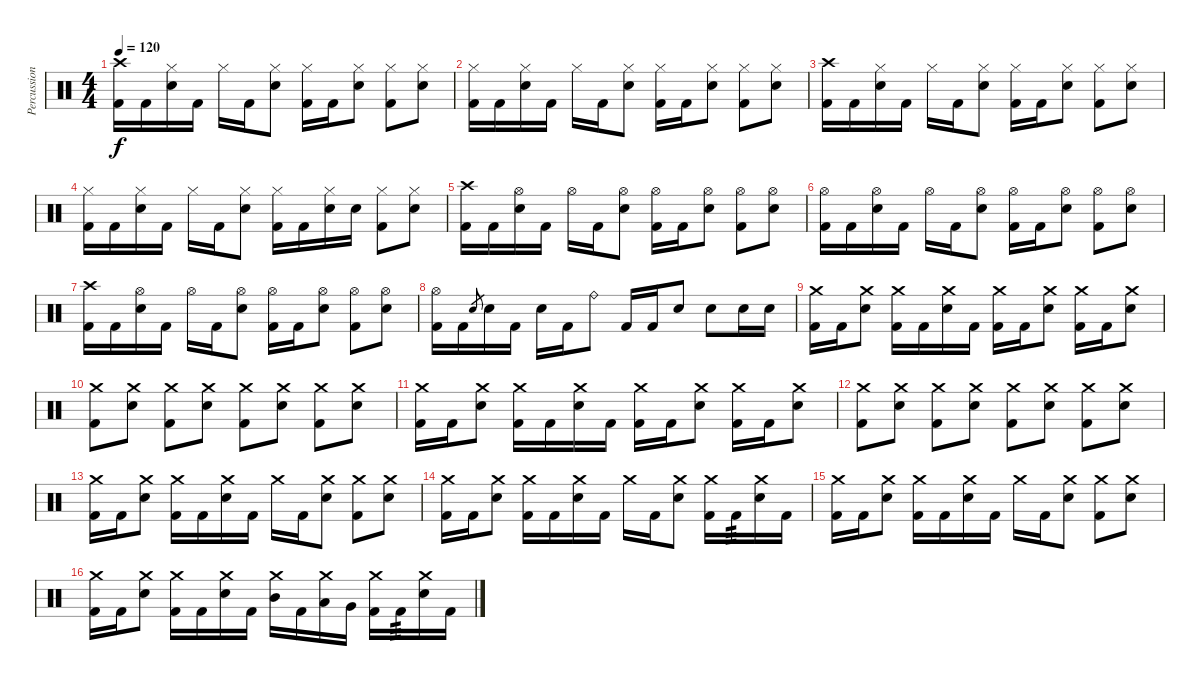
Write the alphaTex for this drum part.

\track ("Percussion" "Percussion") {instrument percussion}
\staff {score}
\articulation defaults
\ts (4 4)
\tempo 120
\clef neutral
\ks c
("Crash high (hit)" "Kick (hit) 2").16{dy f} "Kick (hit) 2".16 ("Hi-Hat (closed)" "Electric Snare (hit)").16 "Kick (hit) 2".16 "Hi-Hat (closed)".16 "Kick (hit) 2".16 ("Hi-Hat (closed)" "Electric Snare (hit)").8 ("Hi-Hat (closed)" "Kick (hit) 2").16 "Kick (hit) 2".16 ("Hi-Hat (closed)" "Electric Snare (hit)").8 ("Hi-Hat (closed)" "Kick (hit) 2").8 ("Hi-Hat (closed)" "Electric Snare (hit)").8 |
("Hi-Hat (closed)" "Kick (hit) 2").16 "Kick (hit) 2".16 ("Hi-Hat (closed)" "Electric Snare (hit)").16 "Kick (hit) 2".16 "Hi-Hat (closed)".16 "Kick (hit) 2".16 ("Hi-Hat (closed)" "Electric Snare (hit)").8 ("Hi-Hat (closed)" "Kick (hit) 2").16 "Kick (hit) 2".16 ("Hi-Hat (closed)" "Electric Snare (hit)").8 ("Hi-Hat (closed)" "Kick (hit) 2").8 ("Hi-Hat (closed)" "Electric Snare (hit)").8 |
("Crash high (hit)" "Kick (hit) 2").16 "Kick (hit) 2".16 ("Hi-Hat (closed)" "Electric Snare (hit)").16 "Kick (hit) 2".16 "Hi-Hat (closed)".16 "Kick (hit) 2".16 ("Hi-Hat (closed)" "Electric Snare (hit)").8 ("Hi-Hat (closed)" "Kick (hit) 2").16 "Kick (hit) 2".16 ("Hi-Hat (closed)" "Electric Snare (hit)").8 ("Hi-Hat (closed)" "Kick (hit) 2").8 ("Hi-Hat (closed)" "Electric Snare (hit)").8 |
("Hi-Hat (closed)" "Kick (hit) 2").16 "Kick (hit) 2".16 ("Hi-Hat (closed)" "Electric Snare (hit)").16 "Kick (hit) 2".16 "Hi-Hat (closed)".16 "Kick (hit) 2".16 ("Hi-Hat (closed)" "Electric Snare (hit)").8 ("Hi-Hat (closed)" "Kick (hit) 2").16 "Kick (hit) 2".16 ("Hi-Hat (closed)" "Electric Snare (hit)").16 "Electric Snare (hit)".16 ("Hi-Hat (closed)" "Kick (hit) 2").8 ("Hi-Hat (closed)" "Electric Snare (hit)").8 |
("Crash high (hit)" "Kick (hit) 2").16 "Kick (hit) 2".16 ("Hi-Hat (open)" "Electric Snare (hit)").16 "Kick (hit) 2".16 "Hi-Hat (open)".16 "Kick (hit) 2".16 ("Hi-Hat (open)" "Electric Snare (hit)").8 ("Hi-Hat (open)" "Kick (hit) 2").16 "Kick (hit) 2".16 ("Hi-Hat (open)" "Electric Snare (hit)").8 ("Hi-Hat (open)" "Kick (hit) 2").8 ("Hi-Hat (open)" "Electric Snare (hit)").8 |
("Hi-Hat (open)" "Kick (hit) 2").16 "Kick (hit) 2".16 ("Hi-Hat (open)" "Electric Snare (hit)").16 "Kick (hit) 2".16 "Hi-Hat (open)".16 "Kick (hit) 2".16 ("Hi-Hat (open)" "Electric Snare (hit)").8 ("Hi-Hat (open)" "Kick (hit) 2").16 "Kick (hit) 2".16 ("Hi-Hat (open)" "Electric Snare (hit)").8 ("Hi-Hat (open)" "Kick (hit) 2").8 ("Hi-Hat (open)" "Electric Snare (hit)").8 |
("Crash high (hit)" "Kick (hit) 2").16 "Kick (hit) 2".16 ("Hi-Hat (open)" "Electric Snare (hit)").16 "Kick (hit) 2".16 "Hi-Hat (open)".16 "Kick (hit) 2".16 ("Hi-Hat (open)" "Electric Snare (hit)").8 ("Hi-Hat (open)" "Kick (hit) 2").16 "Kick (hit) 2".16 ("Hi-Hat (open)" "Electric Snare (hit)").8 ("Hi-Hat (open)" "Kick (hit) 2").8 ("Hi-Hat (open)" "Electric Snare (hit)").8 |
("Hi-Hat (open)" "Kick (hit) 2").16 "Kick (hit) 2".16 "Electric Snare (hit)".8{gr} "Electric Snare (hit)".16 "Kick (hit) 2".16 "Electric Snare (hit)".16 "Kick (hit) 2".16 "Ride (bell)".8 "Kick (hit) 2".16 "Kick (hit) 2".16 "Electric Snare (hit)".8 "Electric Snare (hit)".8 "Electric Snare (hit)".16 "Electric Snare (hit)".16 |
("Crash medium (hit)" "Kick (hit) 2").16 "Kick (hit) 2".16 ("Crash medium (hit)" "Electric Snare (hit)").8 ("Crash medium (hit)" "Kick (hit) 2").16 "Kick (hit) 2".16 ("Crash medium (hit)" "Electric Snare (hit)").16 "Kick (hit) 2".16 ("Crash medium (hit)" "Kick (hit) 2").16 "Kick (hit) 2".16 ("Crash medium (hit)" "Electric Snare (hit)").8 ("Crash medium (hit)" "Kick (hit) 2").16 "Kick (hit) 2".16 ("Crash medium (hit)" "Electric Snare (hit)").8 |
("Crash medium (hit)" "Kick (hit) 2").8 ("Crash medium (hit)" "Electric Snare (hit)").8 ("Crash medium (hit)" "Kick (hit) 2").8 ("Crash medium (hit)" "Electric Snare (hit)").8 ("Crash medium (hit)" "Kick (hit) 2").8 ("Crash medium (hit)" "Electric Snare (hit)").8 ("Crash medium (hit)" "Kick (hit) 2").8 ("Crash medium (hit)" "Electric Snare (hit)").8 |
("Crash medium (hit)" "Kick (hit) 2").16 "Kick (hit) 2".16 ("Crash medium (hit)" "Electric Snare (hit)").8 ("Crash medium (hit)" "Kick (hit) 2").16 "Kick (hit) 2".16 ("Crash medium (hit)" "Electric Snare (hit)").16 "Kick (hit) 2".16 ("Crash medium (hit)" "Kick (hit) 2").16 "Kick (hit) 2".16 ("Crash medium (hit)" "Electric Snare (hit)").8 ("Crash medium (hit)" "Kick (hit) 2").16 "Kick (hit) 2".16 ("Crash medium (hit)" "Electric Snare (hit)").8 |
("Crash medium (hit)" "Kick (hit) 2").8 ("Crash medium (hit)" "Electric Snare (hit)").8 ("Crash medium (hit)" "Kick (hit) 2").8 ("Crash medium (hit)" "Electric Snare (hit)").8 ("Crash medium (hit)" "Kick (hit) 2").8 ("Crash medium (hit)" "Electric Snare (hit)").8 ("Crash medium (hit)" "Kick (hit) 2").8 ("Crash medium (hit)" "Electric Snare (hit)").8 |
("Crash medium (hit)" "Kick (hit) 2").16 "Kick (hit) 2".16 ("Crash medium (hit)" "Electric Snare (hit)").8 ("Crash medium (hit)" "Kick (hit) 2").16 "Kick (hit) 2".16 ("Crash medium (hit)" "Electric Snare (hit)").16 "Kick (hit) 2".16 "Crash medium (hit)".16 "Kick (hit) 2".16 ("Crash medium (hit)" "Electric Snare (hit)").8 ("Crash medium (hit)" "Kick (hit) 2").8 ("Crash medium (hit)" "Electric Snare (hit)").8 |
("Crash medium (hit)" "Kick (hit) 2").16 "Kick (hit) 2".16 ("Crash medium (hit)" "Electric Snare (hit)").8 ("Crash medium (hit)" "Kick (hit) 2").16 "Kick (hit) 2".16 ("Crash medium (hit)" "Electric Snare (hit)").16 "Kick (hit) 2".16 "Crash medium (hit)".16 "Kick (hit) 2".16 ("Crash medium (hit)" "Electric Snare (hit)").8 ("Crash medium (hit)" "Kick (hit) 2").16 "Kick (hit) 2".16{tp 3} ("Crash medium (hit)" "Electric Snare (hit)").16 "Kick (hit) 2".16 |
("Crash medium (hit)" "Kick (hit) 2").16 "Kick (hit) 2".16 ("Crash medium (hit)" "Electric Snare (hit)").8 ("Crash medium (hit)" "Kick (hit) 2").16 "Kick (hit) 2".16 ("Crash medium (hit)" "Electric Snare (hit)").16 "Kick (hit) 2".16 "Crash medium (hit)".16 "Kick (hit) 2".16 ("Crash medium (hit)" "Electric Snare (hit)").8 ("Crash medium (hit)" "Kick (hit) 2").8 ("Crash medium (hit)" "Electric Snare (hit)").8 |
("Crash medium (hit)" "Kick (hit) 2").16 "Kick (hit) 2".16 ("Crash medium (hit)" "Electric Snare (hit)").8 ("Crash medium (hit)" "Kick (hit) 2").16 "Kick (hit) 2".16 ("Crash medium (hit)" "Electric Snare (hit)").16 "Kick (hit) 2".16 ("Crash medium (hit)" "Mid Tom (hit)").16 "Kick (hit) 2".16 ("Crash medium (hit)" "Low Tom (hit)").16 "Very Low Tom (hit)".16 ("Crash medium (hit)" "Kick (hit) 2").16 "Kick (hit) 2".16{tp 3} ("Crash medium (hit)" "Electric Snare (hit)").16 "Kick (hit) 2".16
